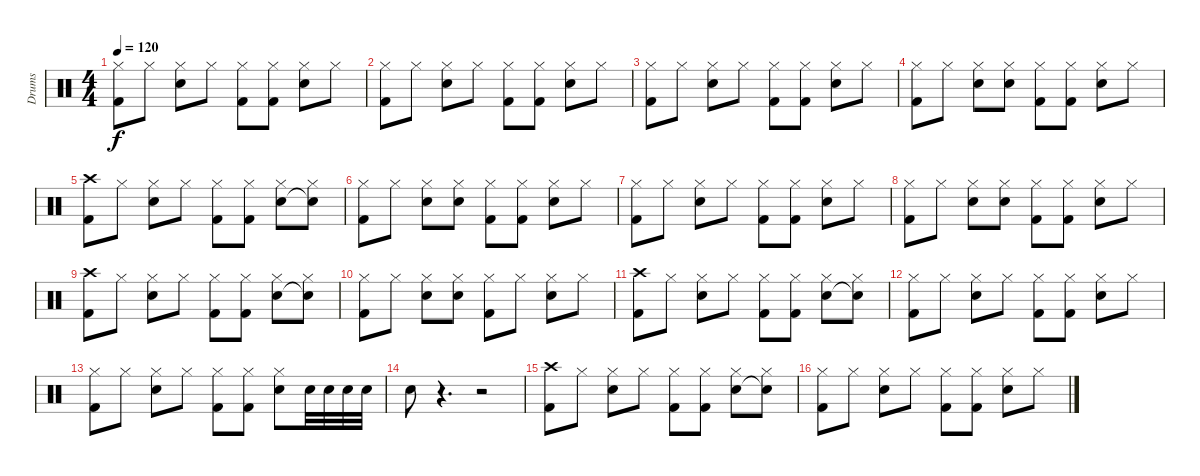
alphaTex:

\track ("Drums" "Drums") {instrument percussion}
\staff {score}
\articulation defaults
\ts (4 4)
\tempo 120
\clef neutral
\ks c
("Hi-Hat (closed)" "Kick (hit) 2").8{dy f} "Hi-Hat (closed)".8 ("Hi-Hat (closed)" "Snare (hit) 2").8 "Hi-Hat (closed)".8 ("Hi-Hat (closed)" "Kick (hit) 2").8 ("Hi-Hat (closed)" "Kick (hit) 2").8 ("Hi-Hat (closed)" "Snare (hit) 2").8 "Hi-Hat (closed)".8 |
("Hi-Hat (closed)" "Kick (hit) 2").8 "Hi-Hat (closed)".8 ("Hi-Hat (closed)" "Snare (hit) 2").8 "Hi-Hat (closed)".8 ("Hi-Hat (closed)" "Kick (hit) 2").8 ("Hi-Hat (closed)" "Kick (hit) 2").8 ("Hi-Hat (closed)" "Snare (hit) 2").8 "Hi-Hat (closed)".8 |
("Hi-Hat (closed)" "Kick (hit) 2").8 "Hi-Hat (closed)".8 ("Hi-Hat (closed)" "Snare (hit) 2").8 "Hi-Hat (closed)".8 ("Hi-Hat (closed)" "Kick (hit) 2").8 ("Hi-Hat (closed)" "Kick (hit) 2").8 ("Hi-Hat (closed)" "Snare (hit) 2").8 "Hi-Hat (closed)".8 |
("Hi-Hat (closed)" "Kick (hit) 2").8 "Hi-Hat (closed)".8 ("Hi-Hat (closed)" "Snare (hit) 2").8 ("Hi-Hat (closed)" "Snare (hit) 2").8 ("Hi-Hat (closed)" "Kick (hit) 2").8 ("Hi-Hat (closed)" "Kick (hit) 2").8 ("Hi-Hat (closed)" "Snare (hit) 2").8 "Hi-Hat (closed)".8 |
("Kick (hit) 2" "Crash high (hit)").8 "Hi-Hat (closed)".8 ("Hi-Hat (closed)" "Snare (hit) 2").8 "Hi-Hat (closed)".8 ("Hi-Hat (closed)" "Kick (hit) 2").8 ("Hi-Hat (closed)" "Kick (hit) 2").8 ("Hi-Hat (closed)" "Snare (hit) 2").8 ("Hi-Hat (closed)" "Snare (hit)"{t}).8 |
("Hi-Hat (closed)" "Kick (hit) 2").8 "Hi-Hat (closed)".8 ("Hi-Hat (closed)" "Snare (hit) 2").8 ("Hi-Hat (closed)" "Snare (hit) 2").8 ("Hi-Hat (closed)" "Kick (hit) 2").8 ("Hi-Hat (closed)" "Kick (hit) 2").8 ("Hi-Hat (closed)" "Snare (hit) 2").8 "Hi-Hat (closed)".8 |
("Hi-Hat (closed)" "Kick (hit) 2").8 "Hi-Hat (closed)".8 ("Hi-Hat (closed)" "Snare (hit) 2").8 "Hi-Hat (closed)".8 ("Hi-Hat (closed)" "Kick (hit) 2").8 ("Hi-Hat (closed)" "Kick (hit) 2").8 ("Hi-Hat (closed)" "Snare (hit) 2").8 "Hi-Hat (closed)".8 |
("Hi-Hat (closed)" "Kick (hit) 2").8 "Hi-Hat (closed)".8 ("Hi-Hat (closed)" "Snare (hit) 2").8 ("Hi-Hat (closed)" "Snare (hit) 2").8 ("Hi-Hat (closed)" "Kick (hit) 2").8 ("Hi-Hat (closed)" "Kick (hit) 2").8 ("Hi-Hat (closed)" "Snare (hit) 2").8 "Hi-Hat (closed)".8 |
("Kick (hit) 2" "Crash high (hit)").8 "Hi-Hat (closed)".8 ("Hi-Hat (closed)" "Snare (hit) 2").8 "Hi-Hat (closed)".8 ("Hi-Hat (closed)" "Kick (hit) 2").8 ("Hi-Hat (closed)" "Kick (hit) 2").8 ("Hi-Hat (closed)" "Snare (hit) 2").8 ("Hi-Hat (closed)" "Snare (hit)"{t}).8 |
("Hi-Hat (closed)" "Kick (hit) 2").8 "Hi-Hat (closed)".8 ("Hi-Hat (closed)" "Snare (hit) 2").8 ("Hi-Hat (closed)" "Snare (hit) 2").8 ("Hi-Hat (closed)" "Kick (hit) 2").8 "Hi-Hat (closed)".8 ("Hi-Hat (closed)" "Snare (hit) 2").8 "Hi-Hat (closed)".8 |
("Kick (hit) 2" "Crash high (hit)").8 "Hi-Hat (closed)".8 ("Hi-Hat (closed)" "Snare (hit) 2").8 "Hi-Hat (closed)".8 ("Hi-Hat (closed)" "Kick (hit) 2").8 ("Hi-Hat (closed)" "Kick (hit) 2").8 ("Hi-Hat (closed)" "Snare (hit) 2").8 ("Hi-Hat (closed)" "Snare (hit)"{t}).8 |
("Hi-Hat (closed)" "Kick (hit) 2").8 "Hi-Hat (closed)".8 ("Hi-Hat (closed)" "Snare (hit) 2").8 "Hi-Hat (closed)".8 ("Hi-Hat (closed)" "Kick (hit) 2").8 ("Hi-Hat (closed)" "Kick (hit) 2").8 ("Hi-Hat (closed)" "Snare (hit) 2").8 "Hi-Hat (closed)".8 |
("Hi-Hat (closed)" "Kick (hit) 2").8 "Hi-Hat (closed)".8 ("Hi-Hat (closed)" "Snare (hit) 2").8 "Hi-Hat (closed)".8 ("Hi-Hat (closed)" "Kick (hit) 2").8 ("Hi-Hat (closed)" "Kick (hit) 2").8 ("Hi-Hat (closed)" "Snare (hit) 2").8 "Snare (hit) 2".32 "Snare (hit) 2".32 "Snare (hit) 2".32 "Snare (hit) 2".32 |
"Snare (hit) 2".8 r.4{d} r.2 |
("Kick (hit) 2" "Crash high (hit)").8 "Hi-Hat (closed)".8 ("Hi-Hat (closed)" "Snare (hit) 2").8 "Hi-Hat (closed)".8 ("Hi-Hat (closed)" "Kick (hit) 2").8 ("Hi-Hat (closed)" "Kick (hit) 2").8 ("Hi-Hat (closed)" "Snare (hit) 2").8 ("Hi-Hat (closed)" "Snare (hit)"{t}).8 |
("Hi-Hat (closed)" "Kick (hit) 2").8 "Hi-Hat (closed)".8 ("Hi-Hat (closed)" "Snare (hit) 2").8 "Hi-Hat (closed)".8 ("Hi-Hat (closed)" "Kick (hit) 2").8 ("Hi-Hat (closed)" "Kick (hit) 2").8 ("Hi-Hat (closed)" "Snare (hit) 2").8 "Hi-Hat (closed)".8
